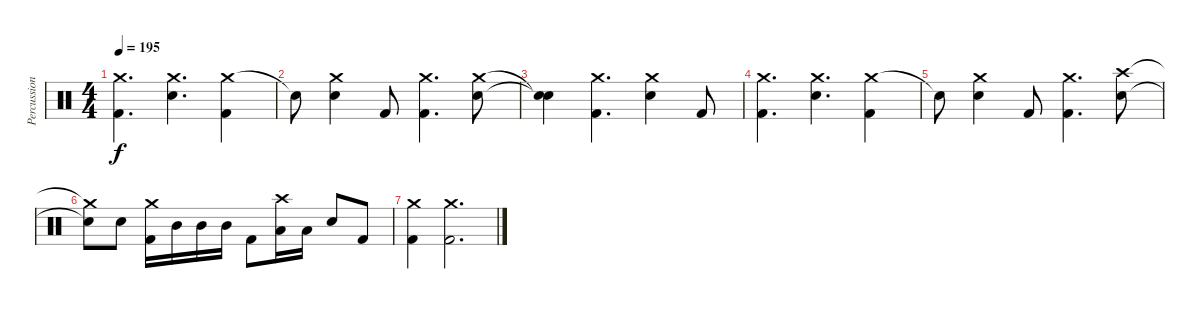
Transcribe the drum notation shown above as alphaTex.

\track ("Percussion" "Percussion") {instrument percussion}
\staff {score}
\articulation defaults
\ts (4 4)
\tempo 195
\clef neutral
\ks c
("Crash medium (hit)" "Kick (hit) 2").4{d dy f} ("Crash medium (hit)" "Electric Snare (hit)").4{d} ("Crash medium (hit)" "Kick (hit) 2").4 |
"Snare (hit)"{t}.8 ("Crash medium (hit)" "Electric Snare (hit)").4 "Kick (hit) 2".8 ("Crash medium (hit)" "Kick (hit) 2").4{d} ("Crash medium (hit)" "Electric Snare (hit)").8 |
("Snare (hit)"{t} "Snare (hit)"{t}).4 ("Crash medium (hit)" "Kick (hit) 2").4{d} ("Crash medium (hit)" "Electric Snare (hit)").4 "Kick (hit) 2".8 |
("Crash medium (hit)" "Kick (hit) 2").4{d} ("Crash medium (hit)" "Electric Snare (hit)").4{d} ("Crash medium (hit)" "Kick (hit) 2").4 |
"Snare (hit)"{t}.8 ("Crash medium (hit)" "Electric Snare (hit)").4 "Kick (hit) 2".8 ("Crash medium (hit)" "Kick (hit) 2").4{d} ("Crash high (hit)" "Electric Snare (hit)").8 |
("Crash medium (hit)"{t} "Electric Snare (hit)"{t}).8 "Electric Snare (hit)".8 ("Crash medium (hit)" "Kick (hit) 2").16 "Mid Tom (hit)".16 "Mid Tom (hit)".16 "Mid Tom (hit)".16 "Kick (hit) 2".8 ("Crash high (hit)" "Low Tom (hit)").16 "Low Tom (hit)".16 "Electric Snare (hit)".8 "Kick (hit) 2".8 |
("Crash medium (hit)" "Kick (hit) 2").4 ("Crash medium (hit)" "Kick (hit) 2").2{d}
